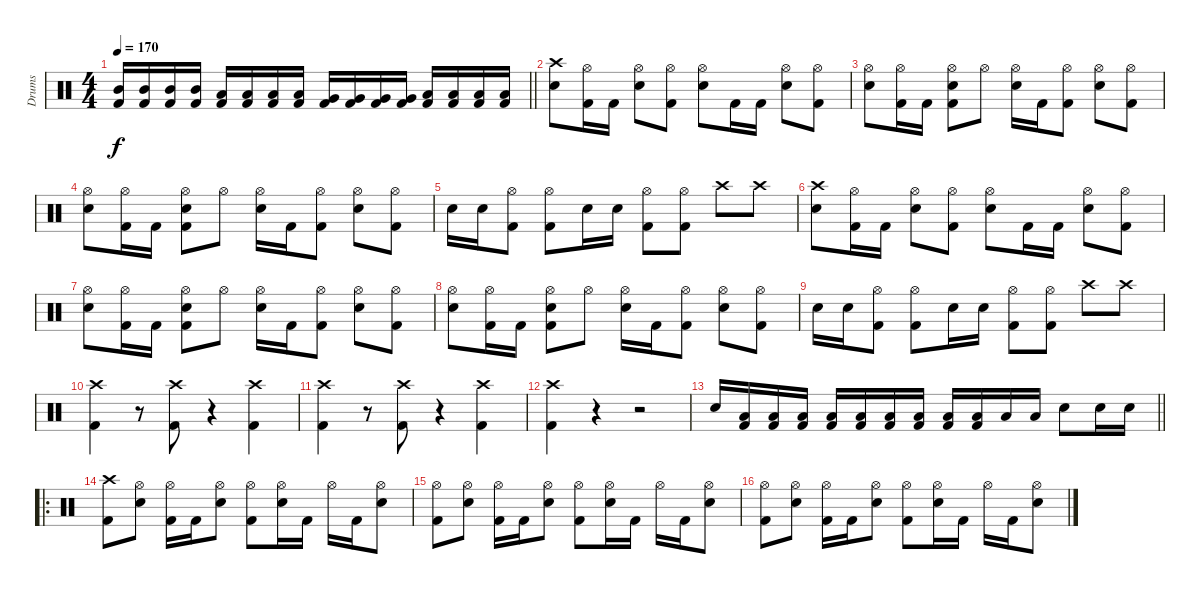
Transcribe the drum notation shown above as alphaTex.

\track ("Drums" "Drums") {instrument percussion}
\staff {score}
\articulation defaults
\ts (4 4)
\tempo 170
\clef neutral
\barLineRight lightlight
\ks c
("Mid Tom (hit)" "Kick (hit) 2").16{dy f} ("Mid Tom (hit)" "Kick (hit) 2").16 ("Mid Tom (hit)" "Kick (hit) 2").16 ("Mid Tom (hit)" "Kick (hit) 2").16 ("Low Tom (hit)" "Kick (hit) 2").16 ("Low Tom (hit)" "Kick (hit) 2").16 ("Low Tom (hit)" "Kick (hit) 2").16 ("Low Tom (hit)" "Kick (hit) 2").16 ("Very Low Tom (hit)" "Kick (hit) 2").16 ("Very Low Tom (hit)" "Kick (hit) 2").16 ("Very Low Tom (hit)" "Kick (hit) 2").16 ("Very Low Tom (hit)" "Kick (hit) 2").16 ("Low Floor Tom (hit)" "Kick (hit) 2").16 ("Low Floor Tom (hit)" "Kick (hit) 2").16 ("Low Floor Tom (hit)" "Kick (hit) 2").16 ("Low Floor Tom (hit)" "Kick (hit) 2").16 |
("Crash high (hit)" "Snare (hit) 2").8 ("Hi-Hat (open)" "Kick (hit) 2").16 "Kick (hit) 2".16 ("Hi-Hat (open)" "Snare (hit) 2").8 ("Hi-Hat (open)" "Kick (hit) 2").8 ("Hi-Hat (open)" "Snare (hit) 2").8 "Kick (hit) 2".16 "Kick (hit) 2".16 ("Hi-Hat (open)" "Snare (hit) 2").8 ("Hi-Hat (open)" "Kick (hit) 2").8 |
("Hi-Hat (open)" "Snare (hit) 2").8 ("Hi-Hat (open)" "Kick (hit) 2").16 "Kick (hit) 2".16 ("Hi-Hat (open)" "Snare (hit) 2" "Kick (hit) 2").8 "Hi-Hat (open)".8 ("Hi-Hat (open)" "Snare (hit) 2").16 "Kick (hit) 2".16 ("Hi-Hat (open)" "Kick (hit) 2").8 ("Hi-Hat (open)" "Snare (hit) 2").8 ("Hi-Hat (open)" "Kick (hit) 2").8 |
("Hi-Hat (open)" "Snare (hit) 2").8 ("Hi-Hat (open)" "Kick (hit) 2").16 "Kick (hit) 2".16 ("Hi-Hat (open)" "Snare (hit) 2" "Kick (hit) 2").8 "Hi-Hat (open)".8 ("Hi-Hat (open)" "Snare (hit) 2").16 "Kick (hit) 2".16 ("Hi-Hat (open)" "Kick (hit) 2").8 ("Hi-Hat (open)" "Snare (hit) 2").8 ("Hi-Hat (open)" "Kick (hit) 2").8 |
"Snare (hit) 2".16 "Snare (hit) 2".16 ("Hi-Hat (open)" "Kick (hit) 2").8 ("Hi-Hat (open)" "Kick (hit) 2").8 "Snare (hit) 2".16 "Snare (hit) 2".16 ("Hi-Hat (open)" "Kick (hit) 2").8 ("Hi-Hat (open)" "Kick (hit) 2").8 "Crash high (hit)".8 "Crash high (hit)".8 |
("Crash high (hit)" "Snare (hit) 2").8 ("Hi-Hat (open)" "Kick (hit) 2").16 "Kick (hit) 2".16 ("Hi-Hat (open)" "Snare (hit) 2").8 ("Hi-Hat (open)" "Kick (hit) 2").8 ("Hi-Hat (open)" "Snare (hit) 2").8 "Kick (hit) 2".16 "Kick (hit) 2".16 ("Hi-Hat (open)" "Snare (hit) 2").8 ("Hi-Hat (open)" "Kick (hit) 2").8 |
("Hi-Hat (open)" "Snare (hit) 2").8 ("Hi-Hat (open)" "Kick (hit) 2").16 "Kick (hit) 2".16 ("Hi-Hat (open)" "Snare (hit) 2" "Kick (hit) 2").8 "Hi-Hat (open)".8 ("Hi-Hat (open)" "Snare (hit) 2").16 "Kick (hit) 2".16 ("Hi-Hat (open)" "Kick (hit) 2").8 ("Hi-Hat (open)" "Snare (hit) 2").8 ("Hi-Hat (open)" "Kick (hit) 2").8 |
("Hi-Hat (open)" "Snare (hit) 2").8 ("Hi-Hat (open)" "Kick (hit) 2").16 "Kick (hit) 2".16 ("Hi-Hat (open)" "Snare (hit) 2" "Kick (hit) 2").8 "Hi-Hat (open)".8 ("Hi-Hat (open)" "Snare (hit) 2").16 "Kick (hit) 2".16 ("Hi-Hat (open)" "Kick (hit) 2").8 ("Hi-Hat (open)" "Snare (hit) 2").8 ("Hi-Hat (open)" "Kick (hit) 2").8 |
"Snare (hit) 2".16 "Snare (hit) 2".16 ("Hi-Hat (open)" "Kick (hit) 2").8 ("Hi-Hat (open)" "Kick (hit) 2").8 "Snare (hit) 2".16 "Snare (hit) 2".16 ("Hi-Hat (open)" "Kick (hit) 2").8 ("Hi-Hat (open)" "Kick (hit) 2").8 "Crash high (hit)".8 "Crash high (hit)".8 |
("Crash high (hit)" "Kick (hit) 2").4 r.8 ("Crash high (hit)" "Kick (hit) 2").8 r.4 ("Crash high (hit)" "Kick (hit) 2").4 |
("Crash high (hit)" "Kick (hit) 2").4 r.8 ("Crash high (hit)" "Kick (hit) 2").8 r.4 ("Crash high (hit)" "Kick (hit) 2").4 |
("Crash high (hit)" "Kick (hit) 2").4 r.4 r.2 |
\barLineRight lightlight "Snare (hit) 2".16
("Low Tom (hit)" "Kick (hit) 2").16 ("Low Tom (hit)" "Kick (hit) 2").16 ("Low Floor Tom (hit)" "Kick (hit) 2").16 ("Low Floor Tom (hit)" "Kick (hit) 2").16 ("Low Floor Tom (hit)" "Kick (hit) 2").16 ("Low Tom (hit)" "Kick (hit) 2").16 ("Low Floor Tom (hit)" "Kick (hit) 2").16 ("Low Floor Tom (hit)" "Kick (hit) 2").16 ("Low Floor Tom (hit)" "Kick (hit) 2").16 "Low Tom (hit)".16 "Low Floor Tom (hit)".16 "Snare (hit) 2".8 "Snare (hit) 2".16 "Snare (hit) 2".16 |
\ro
("Crash high (hit)" "Kick (hit) 2").8 ("Hi-Hat (open)" "Snare (hit) 2").8 ("Hi-Hat (open)" "Kick (hit) 2").16 "Kick (hit) 2".16 ("Hi-Hat (open)" "Snare (hit) 2").8 ("Hi-Hat (open)" "Kick (hit) 2").8 ("Hi-Hat (open)" "Snare (hit) 2").16 "Kick (hit) 2".16 "Hi-Hat (open)".16 "Kick (hit) 2".16 ("Hi-Hat (open)" "Snare (hit) 2").8 |
("Hi-Hat (open)" "Kick (hit) 2").8 ("Hi-Hat (open)" "Snare (hit) 2").8 ("Hi-Hat (open)" "Kick (hit) 2").16 "Kick (hit) 2".16 ("Hi-Hat (open)" "Snare (hit) 2").8 ("Hi-Hat (open)" "Kick (hit) 2").8 ("Hi-Hat (open)" "Snare (hit) 2").16 "Kick (hit) 2".16 "Hi-Hat (open)".16 "Kick (hit) 2".16 ("Hi-Hat (open)" "Snare (hit) 2").8 |
("Hi-Hat (open)" "Kick (hit) 2").8 ("Hi-Hat (open)" "Snare (hit) 2").8 ("Hi-Hat (open)" "Kick (hit) 2").16 "Kick (hit) 2".16 ("Hi-Hat (open)" "Snare (hit) 2").8 ("Hi-Hat (open)" "Kick (hit) 2").8 ("Hi-Hat (open)" "Snare (hit) 2").16 "Kick (hit) 2".16 "Hi-Hat (open)".16 "Kick (hit) 2".16 ("Hi-Hat (open)" "Snare (hit) 2").8
